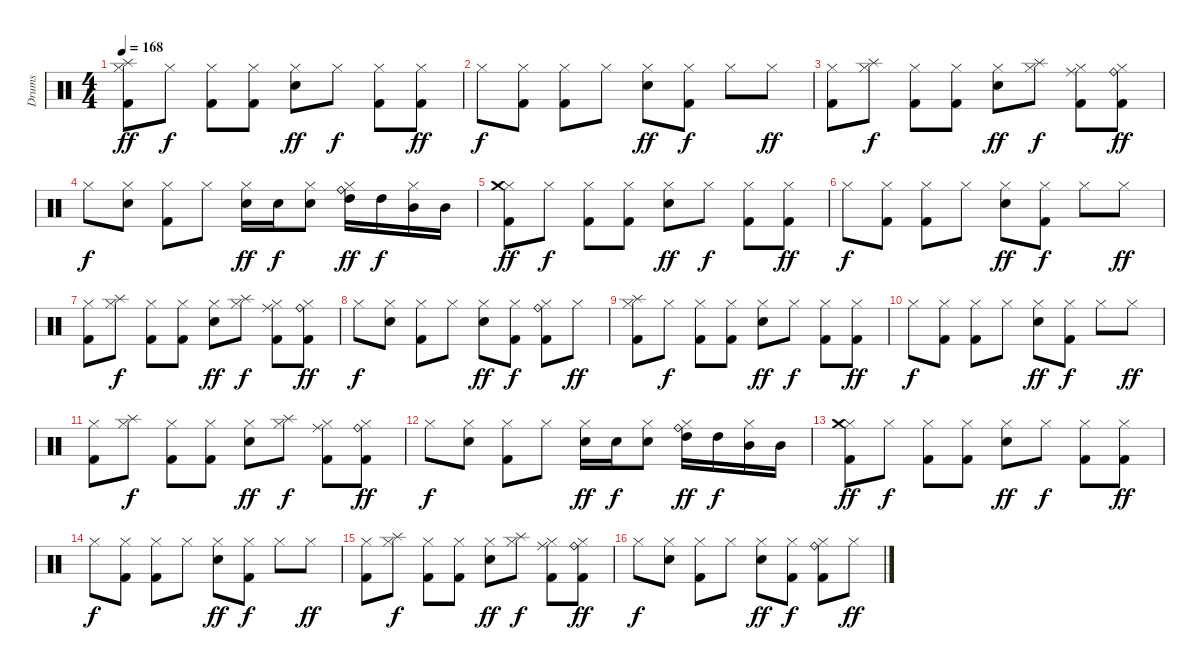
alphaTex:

\track ("Drums" "Drums") {instrument percussion}
\staff {score}
\articulation defaults
\ts (4 4)
\tempo 168
\clef neutral
\ks c
("Hi-Hat (closed)" "Splash (hit)" "Kick (hit) 2").8{dy ff} "Hi-Hat (closed)".8{dy f} ("Hi-Hat (closed)" "Kick (hit) 2").8 ("Hi-Hat (closed)" "Kick (hit) 2").8 ("Hi-Hat (closed)" "Electric Snare (hit)").8{dy ff} "Hi-Hat (closed)".8{dy f} ("Hi-Hat (closed)" "Kick (hit) 2").8 ("Hi-Hat (closed)" "Kick (hit) 2").8{dy ff} |
"Hi-Hat (closed)".8{dy f} ("Hi-Hat (closed)" "Kick (hit) 2").8 ("Hi-Hat (closed)" "Kick (hit) 2").8 "Hi-Hat (closed)".8 ("Hi-Hat (closed)" "Electric Snare (hit)").8{dy ff} ("Hi-Hat (closed)" "Kick (hit) 2").8{dy f} "Hi-Hat (closed)".8 "Hi-Hat (closed)".8{dy ff} |
("Hi-Hat (closed)" "Kick (hit) 2").8 ("Hi-Hat (closed)" "Splash (hit)").8{dy f} ("Hi-Hat (closed)" "Kick (hit) 2").8 ("Hi-Hat (closed)" "Kick (hit) 2").8 ("Hi-Hat (closed)" "Electric Snare (hit)").8{dy ff} ("Hi-Hat (closed)" "Splash (hit)").8{dy f} ("Hi-Hat (closed)" "Ride (middle)" "Kick (hit) 2").8 ("Hi-Hat (closed)" "Ride (bell)" "Kick (hit) 2").8{dy ff} |
"Hi-Hat (closed)".8{dy f} ("Hi-Hat (closed)" "Electric Snare (hit)").8 ("Hi-Hat (closed)" "Kick (hit) 2").8 "Hi-Hat (closed)".8 ("Hi-Hat (closed)" "Electric Snare (hit)").16{dy ff} "Electric Snare (hit)".16{dy f} ("Hi-Hat (closed)" "Electric Snare (hit)").8 ("Hi-Hat (closed)" "Ride (bell)" "High Tom (hit)").16{dy ff} "High Tom (hit)".16{dy f} ("Hi-Hat (closed)" "Mid Tom (hit)").16 "Mid Tom (hit)".16 |
\section ("" "")
("Hi-Hat (closed)" "Crash medium (hit)" "Kick (hit) 2").8{dy ff} "Hi-Hat (closed)".8{dy f} ("Hi-Hat (closed)" "Kick (hit) 2").8 ("Hi-Hat (closed)" "Kick (hit) 2").8 ("Hi-Hat (closed)" "Electric Snare (hit)").8{dy ff} "Hi-Hat (closed)".8{dy f} ("Hi-Hat (closed)" "Kick (hit) 2").8 ("Hi-Hat (closed)" "Kick (hit) 2").8{dy ff} |
"Hi-Hat (closed)".8{dy f} ("Hi-Hat (closed)" "Kick (hit) 2").8 ("Hi-Hat (closed)" "Kick (hit) 2").8 "Hi-Hat (closed)".8 ("Hi-Hat (closed)" "Electric Snare (hit)").8{dy ff} ("Hi-Hat (closed)" "Kick (hit) 2").8{dy f} "Hi-Hat (closed)".8 "Hi-Hat (closed)".8{dy ff} |
("Hi-Hat (closed)" "Kick (hit) 2").8 ("Hi-Hat (closed)" "Splash (hit)").8{dy f} ("Hi-Hat (closed)" "Kick (hit) 2").8 ("Hi-Hat (closed)" "Kick (hit) 2").8 ("Hi-Hat (closed)" "Electric Snare (hit)").8{dy ff} ("Hi-Hat (closed)" "Splash (hit)").8{dy f} ("Hi-Hat (closed)" "Ride (middle)" "Kick (hit) 2").8 ("Hi-Hat (closed)" "Ride (bell)" "Kick (hit) 2").8{dy ff} |
"Hi-Hat (closed)".8{dy f} ("Hi-Hat (closed)" "Electric Snare (hit)").8 ("Hi-Hat (closed)" "Kick (hit) 2").8 "Hi-Hat (closed)".8 ("Hi-Hat (closed)" "Electric Snare (hit)").8{dy ff} ("Hi-Hat (closed)" "Kick (hit) 2").8{dy f} ("Hi-Hat (closed)" "Ride (bell)" "Kick (hit) 2").8 "Hi-Hat (closed)".8{dy ff} |
("Hi-Hat (closed)" "Splash (hit)" "Kick (hit) 2").8 "Hi-Hat (closed)".8{dy f} ("Hi-Hat (closed)" "Kick (hit) 2").8 ("Hi-Hat (closed)" "Kick (hit) 2").8 ("Hi-Hat (closed)" "Electric Snare (hit)").8{dy ff} "Hi-Hat (closed)".8{dy f} ("Hi-Hat (closed)" "Kick (hit) 2").8 ("Hi-Hat (closed)" "Kick (hit) 2").8{dy ff} |
"Hi-Hat (closed)".8{dy f} ("Hi-Hat (closed)" "Kick (hit) 2").8 ("Hi-Hat (closed)" "Kick (hit) 2").8 "Hi-Hat (closed)".8 ("Hi-Hat (closed)" "Electric Snare (hit)").8{dy ff} ("Hi-Hat (closed)" "Kick (hit) 2").8{dy f} "Hi-Hat (closed)".8 "Hi-Hat (closed)".8{dy ff} |
("Hi-Hat (closed)" "Kick (hit) 2").8 ("Hi-Hat (closed)" "Splash (hit)").8{dy f} ("Hi-Hat (closed)" "Kick (hit) 2").8 ("Hi-Hat (closed)" "Kick (hit) 2").8 ("Hi-Hat (closed)" "Electric Snare (hit)").8{dy ff} ("Hi-Hat (closed)" "Splash (hit)").8{dy f} ("Hi-Hat (closed)" "Ride (middle)" "Kick (hit) 2").8 ("Hi-Hat (closed)" "Ride (bell)" "Kick (hit) 2").8{dy ff} |
"Hi-Hat (closed)".8{dy f} ("Hi-Hat (closed)" "Electric Snare (hit)").8 ("Hi-Hat (closed)" "Kick (hit) 2").8 "Hi-Hat (closed)".8 ("Hi-Hat (closed)" "Electric Snare (hit)").16{dy ff} "Electric Snare (hit)".16{dy f} ("Hi-Hat (closed)" "Electric Snare (hit)").8 ("Hi-Hat (closed)" "Ride (bell)" "High Tom (hit)").16{dy ff} "High Tom (hit)".16{dy f} ("Hi-Hat (closed)" "Mid Tom (hit)").16 "Mid Tom (hit)".16 |
\section ("" "")
("Hi-Hat (closed)" "Crash medium (hit)" "Kick (hit) 2").8{dy ff} "Hi-Hat (closed)".8{dy f} ("Hi-Hat (closed)" "Kick (hit) 2").8 ("Hi-Hat (closed)" "Kick (hit) 2").8 ("Hi-Hat (closed)" "Electric Snare (hit)").8{dy ff} "Hi-Hat (closed)".8{dy f} ("Hi-Hat (closed)" "Kick (hit) 2").8 ("Hi-Hat (closed)" "Kick (hit) 2").8{dy ff} |
"Hi-Hat (closed)".8{dy f} ("Hi-Hat (closed)" "Kick (hit) 2").8 ("Hi-Hat (closed)" "Kick (hit) 2").8 "Hi-Hat (closed)".8 ("Hi-Hat (closed)" "Electric Snare (hit)").8{dy ff} ("Hi-Hat (closed)" "Kick (hit) 2").8{dy f} "Hi-Hat (closed)".8 "Hi-Hat (closed)".8{dy ff} |
("Hi-Hat (closed)" "Kick (hit) 2").8 ("Hi-Hat (closed)" "Splash (hit)").8{dy f} ("Hi-Hat (closed)" "Kick (hit) 2").8 ("Hi-Hat (closed)" "Kick (hit) 2").8 ("Hi-Hat (closed)" "Electric Snare (hit)").8{dy ff} ("Hi-Hat (closed)" "Splash (hit)").8{dy f} ("Hi-Hat (closed)" "Ride (middle)" "Kick (hit) 2").8 ("Hi-Hat (closed)" "Ride (bell)" "Kick (hit) 2").8{dy ff} |
"Hi-Hat (closed)".8{dy f} ("Hi-Hat (closed)" "Electric Snare (hit)").8 ("Hi-Hat (closed)" "Kick (hit) 2").8 "Hi-Hat (closed)".8 ("Hi-Hat (closed)" "Electric Snare (hit)").8{dy ff} ("Hi-Hat (closed)" "Kick (hit) 2").8{dy f} ("Hi-Hat (closed)" "Ride (bell)" "Kick (hit) 2").8 "Hi-Hat (closed)".8{dy ff}
